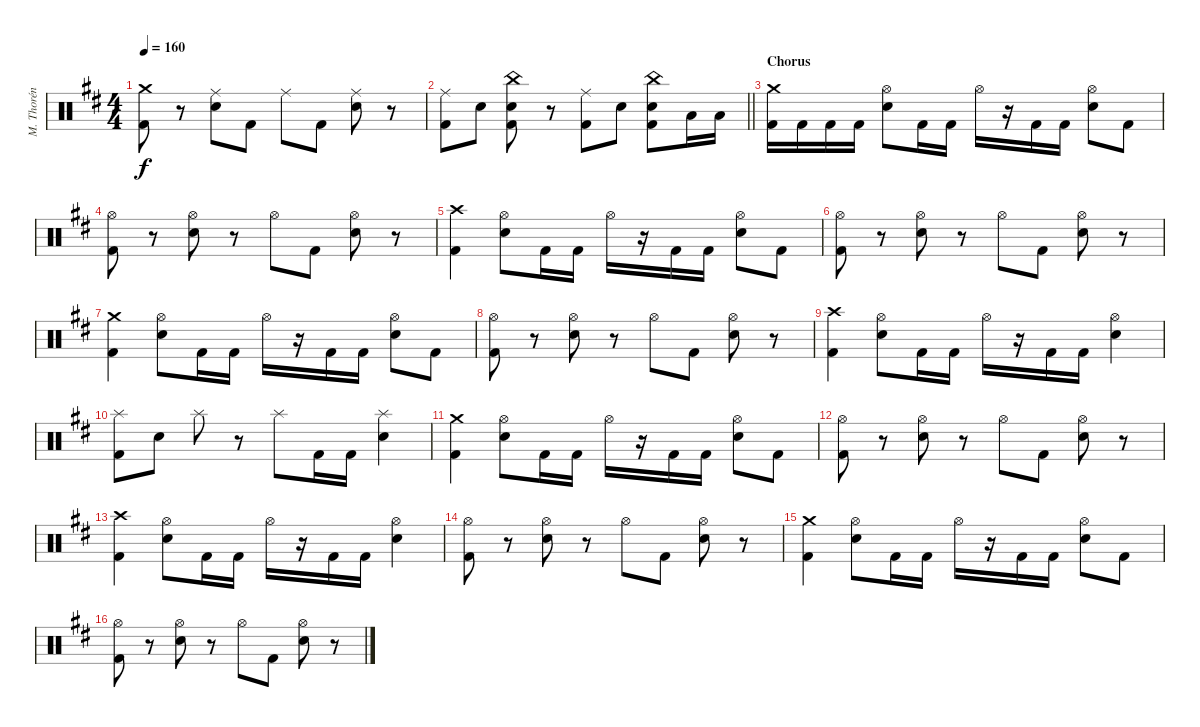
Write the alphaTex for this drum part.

\track ("M. Thorén (Drums)" "M. Thorén ") {instrument percussion}
\staff {score}
\articulation defaults
\ts (4 4)
\tempo 160
\clef neutral
\ks bminor
("Crash medium (hit)" "Kick (hit) 2").8{dy f} r.8 ("Ride (middle)" "Electric Snare (hit)").8 "Kick (hit) 2".8 "Ride (middle)".8 "Kick (hit) 2".8 ("Ride (middle)" "Electric Snare (hit)").8 r.8 |
\barLineRight lightlight
("Ride (middle)" "Kick (hit) 2").8 "Electric Snare (hit)".8 ("China (hit)" "Electric Snare (hit)" "Kick (hit) 2").8 r.8 ("Ride (middle)" "Kick (hit) 2").8 "Electric Snare (hit)".8 ("China (hit)" "Electric Snare (hit)" "Kick (hit) 2").8 "Low Tom (hit)".16 "Low Tom (hit)".16 |
\section ("" "Chorus")
("Crash medium (hit)" "Kick (hit) 2").16 "Kick (hit) 2".16 "Kick (hit) 2".16 "Kick (hit) 2".16 ("Hi-Hat (open)" "Electric Snare (hit)").8 "Kick (hit) 2".16 "Kick (hit) 2".16 "Hi-Hat (open)".16 r.16 "Kick (hit) 2".16 "Kick (hit) 2".16 ("Hi-Hat (open)" "Electric Snare (hit)").8 "Kick (hit) 2".8 |
("Hi-Hat (open)" "Kick (hit) 2").8 r.8 ("Hi-Hat (open)" "Electric Snare (hit)").8 r.8 "Hi-Hat (open)".8 "Kick (hit) 2".8 ("Hi-Hat (open)" "Electric Snare (hit)").8 r.8 |
("Crash high (hit)" "Kick (hit) 2").4 ("Hi-Hat (open)" "Electric Snare (hit)").8 "Kick (hit) 2".16 "Kick (hit) 2".16 "Hi-Hat (open)".16 r.16 "Kick (hit) 2".16 "Kick (hit) 2".16 ("Hi-Hat (open)" "Electric Snare (hit)").8 "Kick (hit) 2".8 |
("Hi-Hat (open)" "Kick (hit) 2").8 r.8 ("Hi-Hat (open)" "Electric Snare (hit)").8 r.8 "Hi-Hat (open)".8 "Kick (hit) 2".8 ("Hi-Hat (open)" "Electric Snare (hit)").8 r.8 |
("Crash medium (hit)" "Kick (hit) 2").4 ("Hi-Hat (open)" "Electric Snare (hit)").8 "Kick (hit) 2".16 "Kick (hit) 2".16 "Hi-Hat (open)".16 r.16 "Kick (hit) 2".16 "Kick (hit) 2".16 ("Hi-Hat (open)" "Electric Snare (hit)").8 "Kick (hit) 2".8 |
("Hi-Hat (open)" "Kick (hit) 2").8 r.8 ("Hi-Hat (open)" "Electric Snare (hit)").8 r.8 "Hi-Hat (open)".8 "Kick (hit) 2".8 ("Hi-Hat (open)" "Electric Snare (hit)").8 r.8 |
("Crash high (hit)" "Kick (hit) 2").4 ("Hi-Hat (open)" "Electric Snare (hit)").8 "Kick (hit) 2".16 "Kick (hit) 2".16 "Hi-Hat (open)".16 r.16 "Kick (hit) 2".16 "Kick (hit) 2".16 ("Hi-Hat (open)" "Electric Snare (hit)").4 |
("Splash (hit)" "Kick (hit) 2").8 "Electric Snare (hit)".8 "Splash (hit)".8 r.8 "Splash (hit)".8 "Kick (hit) 2".16 "Kick (hit) 2".16 ("Splash (hit)" "Electric Snare (hit)").4 |
("Crash medium (hit)" "Kick (hit) 2").4 ("Hi-Hat (open)" "Electric Snare (hit)").8 "Kick (hit) 2".16 "Kick (hit) 2".16 "Hi-Hat (open)".16 r.16 "Kick (hit) 2".16 "Kick (hit) 2".16 ("Hi-Hat (open)" "Electric Snare (hit)").8 "Kick (hit) 2".8 |
("Hi-Hat (open)" "Kick (hit) 2").8 r.8 ("Hi-Hat (open)" "Electric Snare (hit)").8 r.8 "Hi-Hat (open)".8 "Kick (hit) 2".8 ("Hi-Hat (open)" "Electric Snare (hit)").8 r.8 |
("Crash high (hit)" "Kick (hit) 2").4 ("Hi-Hat (open)" "Electric Snare (hit)").8 "Kick (hit) 2".16 "Kick (hit) 2".16 "Hi-Hat (open)".16 r.16 "Kick (hit) 2".16 "Kick (hit) 2".16 ("Hi-Hat (open)" "Electric Snare (hit)").4 |
("Hi-Hat (open)" "Kick (hit) 2").8 r.8 ("Hi-Hat (open)" "Electric Snare (hit)").8 r.8 "Hi-Hat (open)".8 "Kick (hit) 2".8 ("Hi-Hat (open)" "Electric Snare (hit)").8 r.8 |
("Crash medium (hit)" "Kick (hit) 2").4 ("Hi-Hat (open)" "Electric Snare (hit)").8 "Kick (hit) 2".16 "Kick (hit) 2".16 "Hi-Hat (open)".16 r.16 "Kick (hit) 2".16 "Kick (hit) 2".16 ("Hi-Hat (open)" "Electric Snare (hit)").8 "Kick (hit) 2".8 |
("Hi-Hat (open)" "Kick (hit) 2").8 r.8 ("Hi-Hat (open)" "Electric Snare (hit)").8 r.8 "Hi-Hat (open)".8 "Kick (hit) 2".8 ("Hi-Hat (open)" "Electric Snare (hit)").8 r.8
